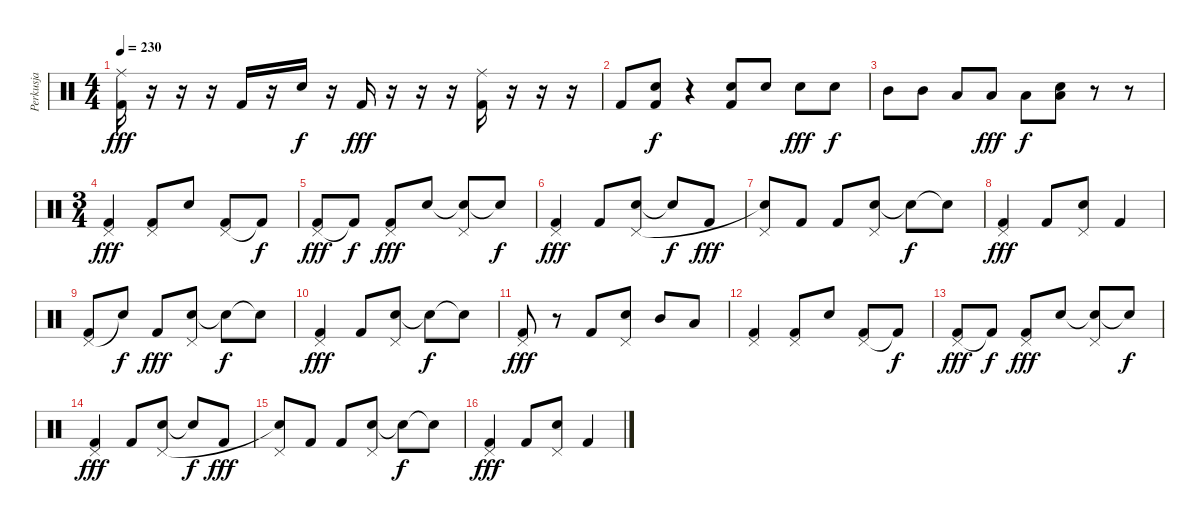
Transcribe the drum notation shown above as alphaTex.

\track ("Perkusja" "Perkusja") {instrument percussion}
\staff {score}
\articulation defaults
\ts (4 4)
\tempo 230
\clef neutral
\ks c
("Ride (middle)" "Kick (hit) 2").16{dy fff} r.16 r.16 r.16 "Kick (hit) 2".16 r.16 "Snare (hit) 2".16{dy f} r.16 "Kick (hit) 2".16{dy fff} r.16 r.16 r.16 ("Ride (middle)" "Kick (hit) 2").16 r.16 r.16 r.16 |
"Kick (hit) 2".8 ("Snare (hit) 2" "Kick (hit) 2").8{dy f} r.4 ("Snare (hit) 2" "Kick (hit) 2").8 "Snare (hit) 2".8 "Snare (hit) 2".8{dy fff} "Snare (hit) 2".8{dy f} |
"Mid Tom (hit)".8 "Mid Tom (hit)".8 "Low Tom (hit)".8 "Low Tom (hit)".8{dy fff} "Low Tom (hit)".8{dy f} ("Snare (hit) 2" "Low Tom (hit)").8 r.8 r.8 |
\ts (3 4)
("Pedal Hi-Hat (hit)" "Kick (hit) 2").4{dy fff} ("Pedal Hi-Hat (hit)" "Kick (hit) 2").8 "Snare (hit) 2".8 ("Pedal Hi-Hat (hit)" "Kick (hit) 2").8 "Kick (hit) 2"{t}.8{dy f} |
("Pedal Hi-Hat (hit)" "Kick (hit) 2").8{dy fff} "Kick (hit) 2"{t}.8{dy f} ("Pedal Hi-Hat (hit)" "Kick (hit) 2").8{dy fff} "Snare (hit) 2".8 ("Snare (hit)"{t} "Pedal Hi-Hat (hit)").8 "Snare (hit)"{t}.8{dy f} |
("Pedal Hi-Hat (hit)" "Kick (hit) 2").4{dy fff} "Kick (hit) 2".8 ("Snare (hit) 2" "Pedal Hi-Hat (hit)").8 "Snare (hit)"{t}.8{dy f} "Kick (hit) 2".8{dy fff} |
("Pedal Hi-Hat (hit)" "Snare (hit)"{t}).8 "Kick (hit) 2".8 "Kick (hit) 2".8 ("Snare (hit) 2" "Pedal Hi-Hat (hit)").8 "Snare (hit)"{t}.8{dy f} "Snare (hit)"{t}.8 |
("Pedal Hi-Hat (hit)" "Kick (hit) 2").4{dy fff} "Kick (hit) 2".8 ("Snare (hit) 2" "Pedal Hi-Hat (hit)").8 "Kick (hit) 2".4 |
("Pedal Hi-Hat (hit)" "Kick (hit) 2").8 "Snare (hit)"{t}.8{dy f} "Kick (hit) 2".8{dy fff} ("Snare (hit) 2" "Pedal Hi-Hat (hit)").8 "Snare (hit)"{t}.8{dy f} "Snare (hit)"{t}.8 |
("Pedal Hi-Hat (hit)" "Kick (hit) 2").4{dy fff} "Kick (hit) 2".8 ("Snare (hit) 2" "Pedal Hi-Hat (hit)").8 "Snare (hit)"{t}.8{dy f} "Snare (hit)"{t}.8 |
("Pedal Hi-Hat (hit)" "Kick (hit) 2").8{dy fff} r.8 "Kick (hit) 2".8 ("Snare (hit) 2" "Pedal Hi-Hat (hit)").8 "Mid Tom (hit)".8 "Low Tom (hit)".8 |
("Pedal Hi-Hat (hit)" "Kick (hit) 2").4 ("Pedal Hi-Hat (hit)" "Kick (hit) 2").8 "Snare (hit) 2".8 ("Pedal Hi-Hat (hit)" "Kick (hit) 2").8 "Kick (hit) 2"{t}.8{dy f} |
("Pedal Hi-Hat (hit)" "Kick (hit) 2").8{dy fff} "Kick (hit) 2"{t}.8{dy f} ("Pedal Hi-Hat (hit)" "Kick (hit) 2").8{dy fff} "Snare (hit) 2".8 ("Snare (hit)"{t} "Pedal Hi-Hat (hit)").8 "Snare (hit)"{t}.8{dy f} |
("Pedal Hi-Hat (hit)" "Kick (hit) 2").4{dy fff} "Kick (hit) 2".8 ("Snare (hit) 2" "Pedal Hi-Hat (hit)").8 "Snare (hit)"{t}.8{dy f} "Kick (hit) 2".8{dy fff} |
("Pedal Hi-Hat (hit)" "Snare (hit)"{t}).8 "Kick (hit) 2".8 "Kick (hit) 2".8 ("Snare (hit) 2" "Pedal Hi-Hat (hit)").8 "Snare (hit)"{t}.8{dy f} "Snare (hit)"{t}.8 |
("Pedal Hi-Hat (hit)" "Kick (hit) 2").4{dy fff} "Kick (hit) 2".8 ("Snare (hit) 2" "Pedal Hi-Hat (hit)").8 "Kick (hit) 2".4
